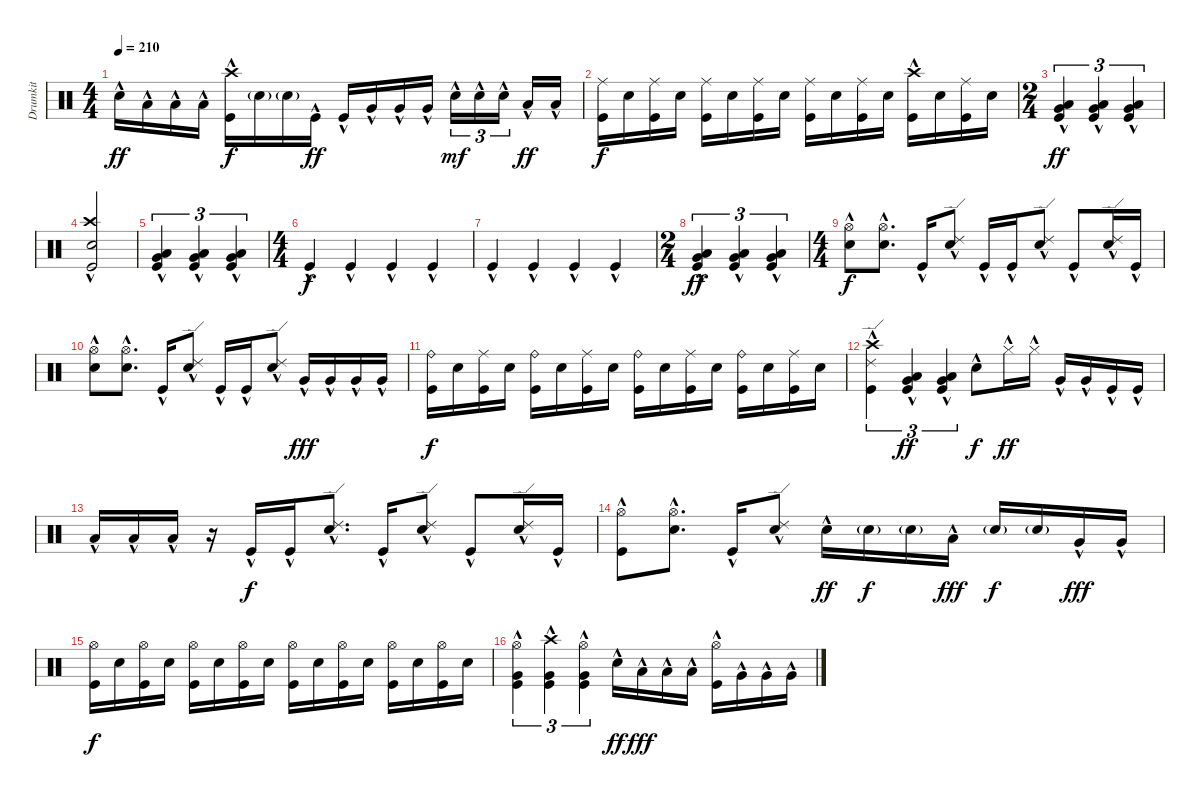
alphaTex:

\track ("Drumkit" "Drumkit") {instrument percussion}
\staff {score}
\articulation defaults
\ts (4 4)
\tempo 210
\clef neutral
\ks c "Snare (hit) 2"{hac}.16{dy ff} "Low Tom (hit)"{hac}.16 "Low Tom (hit)"{hac}.16 "Low Tom (hit)"{hac}.16
("Crash high (hit)"{hac} "Kick (hit)"{hac}).16{dy f} "Snare (hit) 2"{g}.16 "Snare (hit) 2"{g}.16 "Kick (hit)"{hac}.16{dy ff} "Kick (hit)"{hac}.16 "Very Low Tom (hit)"{hac}.16 "Very Low Tom (hit)"{hac}.16 "Very Low Tom (hit)"{hac}.16 "Snare (hit) 2"{hac}.16{tu (3 2) dy mf} "Snare (hit) 2"{hac}.16{tu (3 2)} "Snare (hit) 2"{hac}.16{tu (3 2)} "Low Tom (hit)"{hac}.16{dy ff} "Low Tom (hit)"{hac}.16 |
("Ride (middle)" "Kick (hit)").16{dy f} "Snare (hit) 2".16 ("Ride (middle)" "Kick (hit)").16 "Snare (hit) 2".16 ("Ride (middle)" "Kick (hit)").16 "Snare (hit) 2".16 ("Ride (middle)" "Kick (hit)").16 "Snare (hit) 2".16 ("Ride (middle)" "Kick (hit)").16 "Snare (hit) 2".16 ("Ride (middle)" "Kick (hit)").16 "Snare (hit) 2".16 ("Kick (hit)" "Crash high (hit)"{hac}).16 "Snare (hit) 2".16 ("Ride (middle)" "Kick (hit)").16 "Snare (hit) 2".16 |
\ts (2 4)
("Kick (hit)"{hac} "Very Low Tom (hit)"{hac} "Low Tom (hit)"{hac}).4{tu (3 2) dy ff} ("Low Tom (hit)"{hac} "Kick (hit)"{hac} "Very Low Tom (hit)"{hac}).4{tu (3 2)} ("Low Tom (hit)"{hac} "Very Low Tom (hit)"{hac} "Kick (hit)"{hac}).4{tu (3 2)} |
("Snare (hit) 2"{hac} "Crash high (hit)"{hac} "Kick (hit)"{hac}).2 |
("Kick (hit)"{hac} "Very Low Tom (hit)"{hac} "Low Tom (hit)"{hac}).4{tu (3 2)} ("Kick (hit)"{hac} "Very Low Tom (hit)"{hac} "Low Tom (hit)"{hac}).4{tu (3 2)} ("Kick (hit)"{hac} "Very Low Tom (hit)"{hac} "Low Tom (hit)"{hac}).4{tu (3 2)} |
\ts (4 4)
"Kick (hit)"{hac}.4{dy f} "Kick (hit)"{hac}.4 "Kick (hit)"{hac}.4 "Kick (hit)"{hac}.4 |
"Kick (hit)"{hac}.4 "Kick (hit)"{hac}.4 "Kick (hit)"{hac}.4 "Kick (hit)"{hac}.4 |
\ts (2 4)
("Kick (hit)"{hac} "Very Low Tom (hit)"{hac} "Low Tom (hit)"{hac}).4{tu (3 2) dy ff} ("Kick (hit)"{hac} "Very Low Tom (hit)"{hac} "Low Tom (hit)"{hac}).4{tu (3 2)} ("Kick (hit)"{hac} "Very Low Tom (hit)"{hac} "Low Tom (hit)"{hac}).4{tu (3 2)} |
\ts (4 4)
("Snare (hit) 2"{hac} "Hi-Hat (open)"{hac}).8{dy f} ("Snare (hit) 2"{hac} "Hi-Hat (open)"{hac}).8{d} "Kick (hit)"{hac}.16 ("Snare (hit) 2"{hac} "Ride (edge) 2"{hac}).8 "Kick (hit)"{hac}.16 "Kick (hit)"{hac}.16 ("Snare (hit) 2"{hac} "Ride (edge) 2"{hac}).8 "Kick (hit)"{hac}.8 ("Snare (hit) 2"{hac} "Ride (edge) 2"{hac}).16 "Kick (hit)"{hac}.16 |
("Snare (hit) 2"{hac} "Hi-Hat (open)"{hac}).8 ("Snare (hit) 2"{hac} "Hi-Hat (open)"{hac}).8{d} "Kick (hit)"{hac}.16 ("Snare (hit) 2"{hac} "Ride (edge) 2"{hac}).8 "Kick (hit)"{hac}.16 "Kick (hit)"{hac}.16 ("Snare (hit) 2"{hac} "Ride (edge) 2"{hac}).8 "Very Low Tom (hit)"{hac}.16{dy fff} "Very Low Tom (hit)"{hac}.16 "Very Low Tom (hit)"{hac}.16 "Very Low Tom (hit)"{hac}.16 |
("Ride (bell)" "Kick (hit)").16{dy f} "Snare (hit) 2".16 ("Ride (middle)" "Kick (hit)").16 "Snare (hit) 2".16 ("Ride (bell)" "Kick (hit)").16 "Snare (hit) 2".16 ("Ride (middle)" "Kick (hit)").16 "Snare (hit) 2".16 ("Ride (bell)" "Kick (hit)").16 "Snare (hit) 2".16 ("Ride (middle)" "Kick (hit)").16 "Snare (hit) 2".16 ("Ride (bell)" "Kick (hit)").16 "Snare (hit) 2".16 ("Ride (middle)" "Kick (hit)").16 "Snare (hit) 2".16 |
("Kick (hit)"{hac} "Crash high (hit)"{hac} "Ride (edge) 2"{hac}).4{tu (3 2)} ("Kick (hit)"{hac} "Very Low Tom (hit)"{hac} "Low Tom (hit)"{hac}).4{tu (3 2) dy ff} ("Kick (hit)"{hac} "Low Tom (hit)"{hac} "Very Low Tom (hit)"{hac}).4{tu (3 2)} "Snare (hit) 2"{hac}.8{dy f} "Hi-Hat (closed)"{hac}.16{dy ff} "Hi-Hat (closed)"{hac}.16 "Very Low Tom (hit)"{hac}.16 "Very Low Tom (hit)"{hac}.16 "Kick (hit)"{hac}.16 "Kick (hit)"{hac}.16 |
"Low Tom (hit)"{hac}.16 "Low Tom (hit)"{hac}.16 "Low Tom (hit)"{hac}.16 r.16 "Kick (hit)"{hac}.16{dy f} "Kick (hit)"{hac}.16 ("Snare (hit) 2"{hac} "Ride (edge) 2"{hac}).8{d} "Kick (hit)"{hac}.16 ("Snare (hit) 2"{hac} "Ride (edge) 2"{hac}).8 "Kick (hit)"{hac}.8 ("Snare (hit) 2"{hac} "Ride (edge) 2"{hac}).16 "Kick (hit)"{hac}.16 |
("Kick (hit)"{hac} "Hi-Hat (open)"{hac}).8 ("Snare (hit) 2"{hac} "Hi-Hat (open)"{hac}).8{d} "Kick (hit)"{hac}.16 ("Snare (hit) 2"{hac} "Ride (edge) 2"{hac}).8 "Snare (hit) 2"{hac}.16{dy ff} "Snare (hit) 2"{g}.16{dy f} "Snare (hit) 2"{g}.16 "Low Tom (hit)"{hac}.16{dy fff} "Snare (hit) 2"{g}.16{dy f} "Snare (hit) 2"{g}.16 "Very Low Tom (hit)"{hac}.16{dy fff} "Very Low Tom (hit)"{hac}.16 |
("Hi-Hat (open)" "Kick (hit)").16{dy f} "Snare (hit) 2".16 ("Hi-Hat (open)" "Kick (hit)").16 "Snare (hit) 2".16 ("Hi-Hat (open)" "Kick (hit)").16 "Snare (hit) 2".16 ("Hi-Hat (open)" "Kick (hit)").16 "Snare (hit) 2".16 ("Hi-Hat (open)" "Kick (hit)").16 "Snare (hit) 2".16 ("Hi-Hat (open)" "Kick (hit)").16 "Snare (hit) 2".16 ("Hi-Hat (open)" "Kick (hit)").16 "Snare (hit) 2".16 ("Hi-Hat (open)" "Kick (hit)").16 "Snare (hit) 2".16 |
("Kick (hit)"{hac} "Very Low Tom (hit)"{hac} "Hi-Hat (open)"{hac}).4{tu (3 2)} ("Kick (hit)"{hac} "Very Low Tom (hit)"{hac} "Crash high (hit)"{hac}).4{tu (3 2)} ("Kick (hit)"{hac} "Very Low Tom (hit)"{hac} "Hi-Hat (open)"{hac}).4{tu (3 2)} "Snare (hit) 2"{hac}.16{dy ff} "Low Tom (hit)"{hac}.16{dy fff} "Low Tom (hit)"{hac}.16 "Low Tom (hit)"{hac}.16 ("Hi-Hat (open)"{hac} "Kick (hit)"{hac}).16 "Very Low Tom (hit)"{hac}.16 "Very Low Tom (hit)"{hac}.16 "Very Low Tom (hit)"{hac}.16
